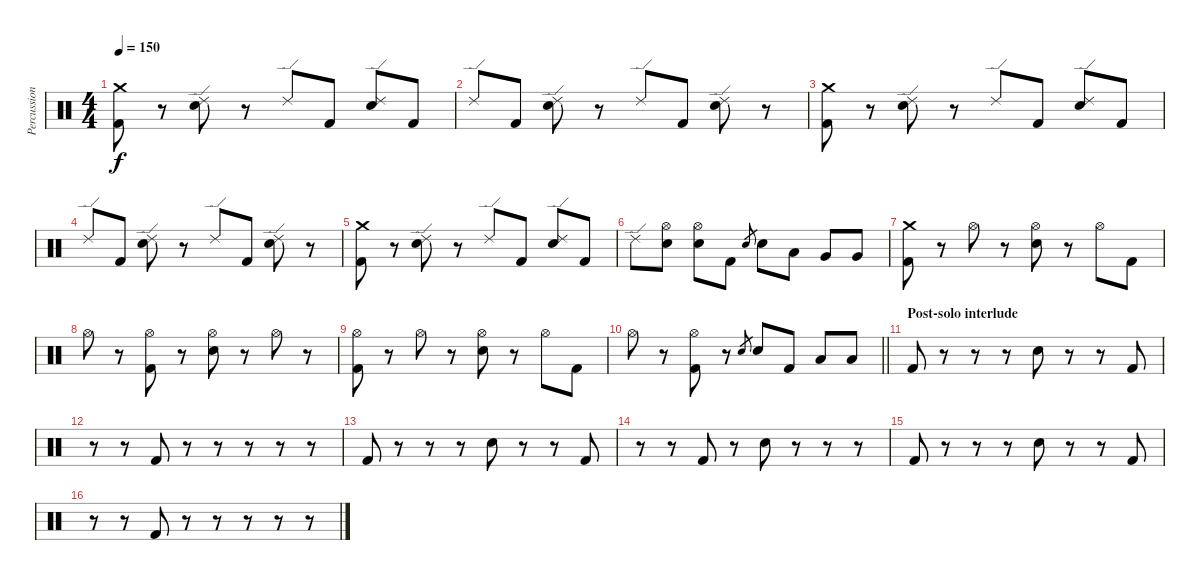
\track ("Percussion" "Percussion") {instrument percussion}
\staff {score}
\articulation defaults
\ts (4 4)
\tempo 150
\clef neutral
\ks c
("Crash medium (hit)" "Kick (hit) 2").8{dy f} r.8 ("Ride (edge) 2" "Electric Snare (hit)").8 r.8 "Ride (edge) 2".8 "Kick (hit) 2".8 ("Ride (edge) 2" "Electric Snare (hit)").8 "Kick (hit) 2".8 |
"Ride (edge) 2".8 "Kick (hit) 2".8 ("Ride (edge) 2" "Electric Snare (hit)").8 r.8 "Ride (edge) 2".8 "Kick (hit) 2".8 ("Ride (edge) 2" "Electric Snare (hit)").8 r.8 |
("Crash medium (hit)" "Kick (hit) 2").8 r.8 ("Ride (edge) 2" "Electric Snare (hit)").8 r.8 "Ride (edge) 2".8 "Kick (hit) 2".8 ("Ride (edge) 2" "Electric Snare (hit)").8 "Kick (hit) 2".8 |
"Ride (edge) 2".8 "Kick (hit) 2".8 ("Ride (edge) 2" "Electric Snare (hit)").8 r.8 "Ride (edge) 2".8 "Kick (hit) 2".8 ("Ride (edge) 2" "Electric Snare (hit)").8 r.8 |
("Crash medium (hit)" "Kick (hit) 2").8 r.8 ("Ride (edge) 2" "Electric Snare (hit)").8 r.8 "Ride (edge) 2".8 "Kick (hit) 2".8 ("Ride (edge) 2" "Electric Snare (hit)").8 "Kick (hit) 2".8 |
"Ride (edge) 2".8 ("Hi-Hat (open)" "Electric Snare (hit)").8 ("Hi-Hat (open)" "Electric Snare (hit)").8 "Kick (hit) 2".8 "Electric Snare (hit)".8{gr} "Electric Snare (hit)".8 "Low Tom (hit)".8 "Very Low Tom (hit)".8 "Very Low Tom (hit)".8 |
("Crash medium (hit)" "Kick (hit) 2").8 r.8 "Hi-Hat (open)".8 r.8 ("Hi-Hat (open)" "Electric Snare (hit)").8 r.8 "Hi-Hat (open)".8 "Kick (hit) 2".8 |
"Hi-Hat (open)".8 r.8 ("Hi-Hat (open)" "Kick (hit) 2").8 r.8 ("Hi-Hat (open)" "Electric Snare (hit)").8 r.8 "Hi-Hat (open)".8 r.8 |
("Hi-Hat (open)" "Kick (hit) 2").8 r.8 "Hi-Hat (open)".8 r.8 ("Hi-Hat (open)" "Electric Snare (hit)").8 r.8 "Hi-Hat (open)".8 "Kick (hit) 2".8 |
\barLineRight lightlight "Hi-Hat (open)".8
r.8 ("Hi-Hat (open)" "Kick (hit) 2").8 r.8 "Electric Snare (hit)".8{gr} "Electric Snare (hit)".8 "Kick (hit) 2".8 "Low Tom (hit)".8 "Low Tom (hit)".8 |
\section ("" "Post-solo interlude")
"Kick (hit) 2".8 r.8 r.8 r.8 "Electric Snare (hit)".8 r.8 r.8 "Kick (hit) 2".8 |
r.8 r.8 "Kick (hit) 2".8 r.8 r.8 r.8 r.8 r.8 |
"Kick (hit) 2".8 r.8 r.8 r.8 "Electric Snare (hit)".8 r.8 r.8 "Kick (hit) 2".8 |
r.8 r.8 "Kick (hit) 2".8 r.8 "Electric Snare (hit)".8 r.8 r.8 r.8 |
"Kick (hit) 2".8 r.8 r.8 r.8 "Electric Snare (hit)".8 r.8 r.8 "Kick (hit) 2".8 |
r.8 r.8 "Kick (hit) 2".8 r.8 r.8 r.8 r.8 r.8
